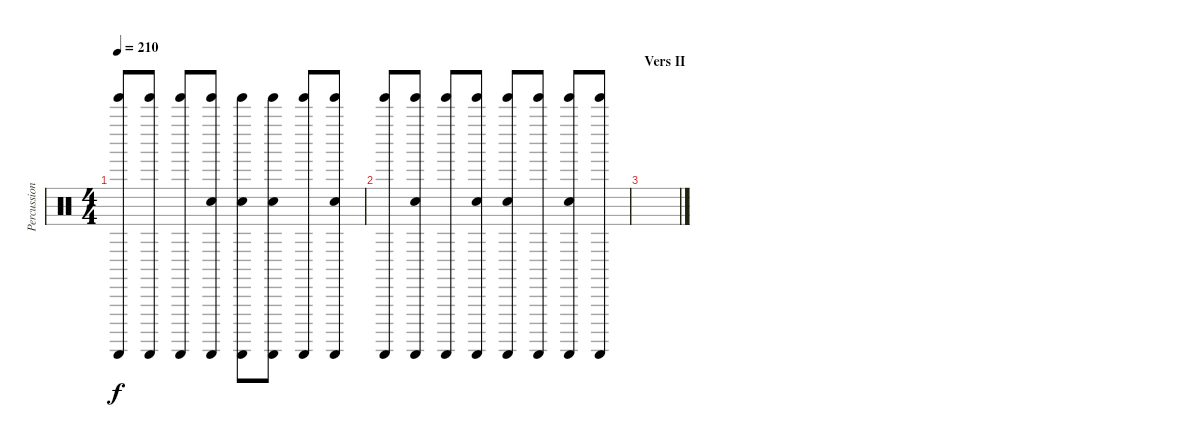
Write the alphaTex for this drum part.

\track ("Percussion" "Percussion") {instrument percussion}
\staff {score}
\articulation defaults
\ts (4 4)
\tempo 210
\clef neutral
\ks c
("Tinkle Bell (hit)" "Guiro (scrap-return)").8{dy f} ("Tinkle Bell (hit)" "Guiro (scrap-return)").8 ("Tinkle Bell (hit)" "Guiro (scrap-return)").8 ("Tinkle Bell (hit)" "Guiro (scrap-return)" "Hand Clap (hit)").8 ("Tinkle Bell (hit)" "Guiro (scrap-return)" "Hand Clap (hit)").8 ("Tinkle Bell (hit)" "Guiro (scrap-return)" "Hand Clap (hit)").8 ("Tinkle Bell (hit)" "Guiro (scrap-return)").8 ("Tinkle Bell (hit)" "Guiro (scrap-return)" "Hand Clap (hit)").8 |
("Tinkle Bell (hit)" "Guiro (scrap-return)").8 ("Tinkle Bell (hit)" "Guiro (scrap-return)" "Hand Clap (hit)").8 ("Tinkle Bell (hit)" "Guiro (scrap-return)").8 ("Tinkle Bell (hit)" "Guiro (scrap-return)" "Hand Clap (hit)").8 ("Tinkle Bell (hit)" "Guiro (scrap-return)" "Hand Clap (hit)").8 ("Tinkle Bell (hit)" "Guiro (scrap-return)").8 ("Tinkle Bell (hit)" "Guiro (scrap-return)" "Hand Clap (hit)").8 ("Tinkle Bell (hit)" "Guiro (scrap-return)").8 |
\section ("" "Vers II")
